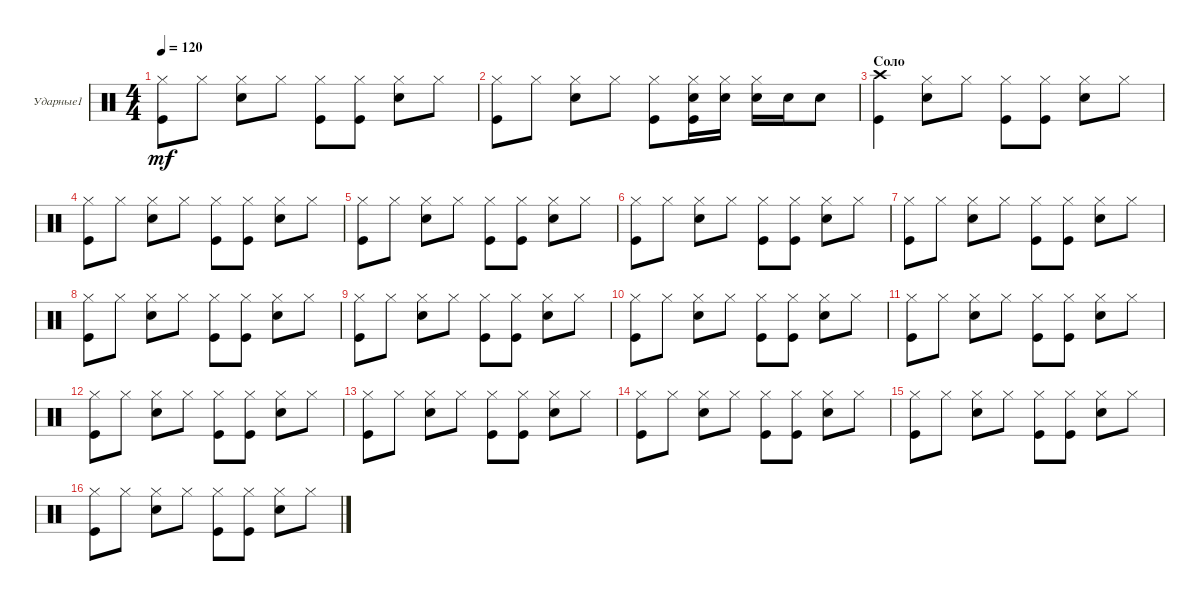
\defaultSystemsLayout 4
\bracketExtendMode groupsimilarinstruments
\firstSystemTrackNameOrientation horizontal
\otherSystemsTrackNameOrientation horizontal
\track ("Е.Кулаков" "Ударные1") {instrument percussion}
\staff {score}
\articulation defaults
\ts (4 4)
\tempo 120
\clef neutral
\ks c
("Hi-Hat (closed)" "Kick (hit)").8{dy mf} "Hi-Hat (closed)".8 ("Hi-Hat (closed)" "Snare (hit) 2").8 "Hi-Hat (closed)".8 ("Hi-Hat (closed)" "Kick (hit)").8 ("Hi-Hat (closed)" "Kick (hit)").8 ("Hi-Hat (closed)" "Snare (hit) 2").8 "Hi-Hat (closed)".8 |
("Hi-Hat (closed)" "Kick (hit)").8 "Hi-Hat (closed)".8 ("Hi-Hat (closed)" "Snare (hit) 2").8 "Hi-Hat (closed)".8 ("Hi-Hat (closed)" "Kick (hit)").8 ("Hi-Hat (closed)" "Kick (hit)" "Snare (hit) 2").16 ("Hi-Hat (closed)" "Snare (hit) 2").16 ("Hi-Hat (closed)" "Snare (hit) 2").16 "Snare (hit) 2".16 "Snare (hit) 2".8 |
\section ("" "Соло")
("Crash high (hit)" "Kick (hit)").4 ("Hi-Hat (closed)" "Snare (hit) 2").8 "Hi-Hat (closed)".8 ("Hi-Hat (closed)" "Kick (hit)").8 ("Hi-Hat (closed)" "Kick (hit)").8 ("Hi-Hat (closed)" "Snare (hit) 2").8 "Hi-Hat (closed)".8 |
("Hi-Hat (closed)" "Kick (hit)").8 "Hi-Hat (closed)".8 ("Hi-Hat (closed)" "Snare (hit) 2").8 "Hi-Hat (closed)".8 ("Hi-Hat (closed)" "Kick (hit)").8 ("Hi-Hat (closed)" "Kick (hit)").8 ("Hi-Hat (closed)" "Snare (hit) 2").8 "Hi-Hat (closed)".8 |
("Hi-Hat (closed)" "Kick (hit)").8 "Hi-Hat (closed)".8 ("Hi-Hat (closed)" "Snare (hit) 2").8 "Hi-Hat (closed)".8 ("Hi-Hat (closed)" "Kick (hit)").8 ("Hi-Hat (closed)" "Kick (hit)").8 ("Hi-Hat (closed)" "Snare (hit) 2").8 "Hi-Hat (closed)".8 |
("Hi-Hat (closed)" "Kick (hit)").8 "Hi-Hat (closed)".8 ("Hi-Hat (closed)" "Snare (hit) 2").8 "Hi-Hat (closed)".8 ("Hi-Hat (closed)" "Kick (hit)").8 ("Hi-Hat (closed)" "Kick (hit)").8 ("Hi-Hat (closed)" "Snare (hit) 2").8 "Hi-Hat (closed)".8 |
("Hi-Hat (closed)" "Kick (hit)").8 "Hi-Hat (closed)".8 ("Hi-Hat (closed)" "Snare (hit) 2").8 "Hi-Hat (closed)".8 ("Hi-Hat (closed)" "Kick (hit)").8 ("Hi-Hat (closed)" "Kick (hit)").8 ("Hi-Hat (closed)" "Snare (hit) 2").8 "Hi-Hat (closed)".8 |
("Hi-Hat (closed)" "Kick (hit)").8 "Hi-Hat (closed)".8 ("Hi-Hat (closed)" "Snare (hit) 2").8 "Hi-Hat (closed)".8 ("Hi-Hat (closed)" "Kick (hit)").8 ("Hi-Hat (closed)" "Kick (hit)").8 ("Hi-Hat (closed)" "Snare (hit) 2").8 "Hi-Hat (closed)".8 |
("Hi-Hat (closed)" "Kick (hit)").8 "Hi-Hat (closed)".8 ("Hi-Hat (closed)" "Snare (hit) 2").8 "Hi-Hat (closed)".8 ("Hi-Hat (closed)" "Kick (hit)").8 ("Hi-Hat (closed)" "Kick (hit)").8 ("Hi-Hat (closed)" "Snare (hit) 2").8 "Hi-Hat (closed)".8 |
("Hi-Hat (closed)" "Kick (hit)").8 "Hi-Hat (closed)".8 ("Hi-Hat (closed)" "Snare (hit) 2").8 "Hi-Hat (closed)".8 ("Hi-Hat (closed)" "Kick (hit)").8 ("Hi-Hat (closed)" "Kick (hit)").8 ("Hi-Hat (closed)" "Snare (hit) 2").8 "Hi-Hat (closed)".8 |
("Hi-Hat (closed)" "Kick (hit)").8 "Hi-Hat (closed)".8 ("Hi-Hat (closed)" "Snare (hit) 2").8 "Hi-Hat (closed)".8 ("Hi-Hat (closed)" "Kick (hit)").8 ("Hi-Hat (closed)" "Kick (hit)").8 ("Hi-Hat (closed)" "Snare (hit) 2").8 "Hi-Hat (closed)".8 |
("Hi-Hat (closed)" "Kick (hit)").8 "Hi-Hat (closed)".8 ("Hi-Hat (closed)" "Snare (hit) 2").8 "Hi-Hat (closed)".8 ("Hi-Hat (closed)" "Kick (hit)").8 ("Hi-Hat (closed)" "Kick (hit)").8 ("Hi-Hat (closed)" "Snare (hit) 2").8 "Hi-Hat (closed)".8 |
("Hi-Hat (closed)" "Kick (hit)").8 "Hi-Hat (closed)".8 ("Hi-Hat (closed)" "Snare (hit) 2").8 "Hi-Hat (closed)".8 ("Hi-Hat (closed)" "Kick (hit)").8 ("Hi-Hat (closed)" "Kick (hit)").8 ("Hi-Hat (closed)" "Snare (hit) 2").8 "Hi-Hat (closed)".8 |
("Hi-Hat (closed)" "Kick (hit)").8 "Hi-Hat (closed)".8 ("Hi-Hat (closed)" "Snare (hit) 2").8 "Hi-Hat (closed)".8 ("Hi-Hat (closed)" "Kick (hit)").8 ("Hi-Hat (closed)" "Kick (hit)").8 ("Hi-Hat (closed)" "Snare (hit) 2").8 "Hi-Hat (closed)".8 |
("Hi-Hat (closed)" "Kick (hit)").8 "Hi-Hat (closed)".8 ("Hi-Hat (closed)" "Snare (hit) 2").8 "Hi-Hat (closed)".8 ("Hi-Hat (closed)" "Kick (hit)").8 ("Hi-Hat (closed)" "Kick (hit)").8 ("Hi-Hat (closed)" "Snare (hit) 2").8 "Hi-Hat (closed)".8 |
("Hi-Hat (closed)" "Kick (hit)").8 "Hi-Hat (closed)".8 ("Hi-Hat (closed)" "Snare (hit) 2").8 "Hi-Hat (closed)".8 ("Hi-Hat (closed)" "Kick (hit)").8 ("Hi-Hat (closed)" "Kick (hit)").8 ("Hi-Hat (closed)" "Snare (hit) 2").8 "Hi-Hat (closed)".8
